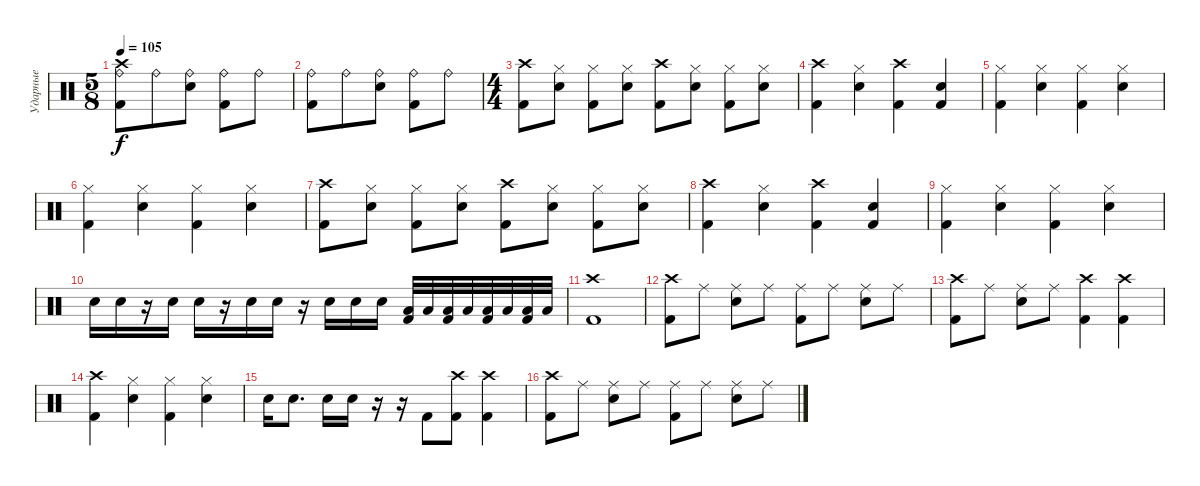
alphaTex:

\track ("Ударные" "Ударные") {instrument percussion}
\staff {score}
\articulation defaults
\ts (5 8)
\tempo 105
\clef neutral
\ks c
("Kick (hit) 2" "Ride (bell)" "Crash high (hit)").8{dy f} "Ride (bell)".8 ("Electric Snare (hit)" "Ride (bell)").8 ("Kick (hit) 2" "Ride (bell)").8 "Ride (bell)".8 |
("Kick (hit) 2" "Ride (bell)").8 "Ride (bell)".8 ("Electric Snare (hit)" "Ride (bell)").8 ("Kick (hit) 2" "Ride (bell)").8 "Ride (bell)".8 |
\ts (4 4)
("Crash high (hit)" "Kick (hit) 2").8 ("Hi-Hat (closed)" "Electric Snare (hit)").8 ("Hi-Hat (closed)" "Kick (hit) 2").8 ("Hi-Hat (closed)" "Electric Snare (hit)").8 ("Crash high (hit)" "Kick (hit) 2").8 ("Hi-Hat (closed)" "Electric Snare (hit)").8 ("Hi-Hat (closed)" "Kick (hit) 2").8 ("Hi-Hat (closed)" "Electric Snare (hit)").8 |
("Kick (hit) 2" "Crash high (hit)").4 ("Electric Snare (hit)" "Hi-Hat (closed)").4 ("Kick (hit) 2" "Crash high (hit)").4 ("Electric Snare (hit)" "Kick (hit) 2").4 |
("Kick (hit) 2" "Hi-Hat (closed)").4 ("Hi-Hat (closed)" "Electric Snare (hit)").4 ("Hi-Hat (closed)" "Kick (hit) 2").4 ("Hi-Hat (closed)" "Electric Snare (hit)").4 |
("Kick (hit) 2" "Hi-Hat (closed)").4 ("Hi-Hat (closed)" "Electric Snare (hit)").4 ("Hi-Hat (closed)" "Kick (hit) 2").4 ("Hi-Hat (closed)" "Electric Snare (hit)").4 |
("Crash high (hit)" "Kick (hit) 2").8 ("Hi-Hat (closed)" "Electric Snare (hit)").8 ("Hi-Hat (closed)" "Kick (hit) 2").8 ("Hi-Hat (closed)" "Electric Snare (hit)").8 ("Crash high (hit)" "Kick (hit) 2").8 ("Hi-Hat (closed)" "Electric Snare (hit)").8 ("Hi-Hat (closed)" "Kick (hit) 2").8 ("Hi-Hat (closed)" "Electric Snare (hit)").8 |
("Kick (hit) 2" "Crash high (hit)").4 ("Electric Snare (hit)" "Hi-Hat (closed)").4 ("Kick (hit) 2" "Crash high (hit)").4 ("Electric Snare (hit)" "Kick (hit) 2").4 |
("Kick (hit) 2" "Hi-Hat (closed)").4 ("Hi-Hat (closed)" "Electric Snare (hit)").4 ("Hi-Hat (closed)" "Kick (hit) 2").4 ("Hi-Hat (closed)" "Electric Snare (hit)").4 |
"Electric Snare (hit)".16 "Electric Snare (hit)".16 r.16 "Electric Snare (hit)".16 "Electric Snare (hit)".16 r.16 "Electric Snare (hit)".16 "Electric Snare (hit)".16 r.16 "Electric Snare (hit)".16 "Electric Snare (hit)".16 "Electric Snare (hit)".16 ("Low Tom (hit)" "Kick (hit) 2").32 "Low Tom (hit)".32 ("Low Tom (hit)" "Kick (hit) 2").32 "Low Tom (hit)".32 ("Kick (hit) 2" "Low Floor Tom (hit)").32 "Low Floor Tom (hit)".32 ("Kick (hit) 2" "Low Floor Tom (hit)").32 "Low Floor Tom (hit)".32 |
("Crash high (hit)" "Kick (hit) 2").1 |
("Crash high (hit)" "Kick (hit) 2").8 "Ride (middle)".8 ("Electric Snare (hit)" "Ride (middle)").8 "Ride (middle)".8 ("Kick (hit) 2" "Ride (middle)").8 "Ride (middle)".8 ("Electric Snare (hit)" "Ride (middle)").8 "Ride (middle)".8 |
("Crash high (hit)" "Kick (hit) 2").8 "Ride (middle)".8 ("Electric Snare (hit)" "Ride (middle)").8 "Ride (middle)".8 ("Crash high (hit)" "Kick (hit) 2").4 ("Kick (hit) 2" "Crash high (hit)").4 |
("Kick (hit) 2" "Crash high (hit)").4 ("Hi-Hat (closed)" "Electric Snare (hit)").4 ("Hi-Hat (closed)" "Kick (hit) 2").4 ("Hi-Hat (closed)" "Electric Snare (hit)").4 |
"Electric Snare (hit)".16 "Electric Snare (hit)".8{d} "Electric Snare (hit)".16 "Electric Snare (hit)".16 r.16 r.16 "Kick (hit) 2".8 ("Crash high (hit)" "Kick (hit) 2").8 ("Kick (hit) 2" "Crash high (hit)").4 |
("Crash high (hit)" "Kick (hit) 2").8 "Ride (middle)".8 ("Electric Snare (hit)" "Ride (middle)").8 "Ride (middle)".8 ("Kick (hit) 2" "Ride (middle)").8 "Ride (middle)".8 ("Electric Snare (hit)" "Ride (middle)").8 "Ride (middle)".8
